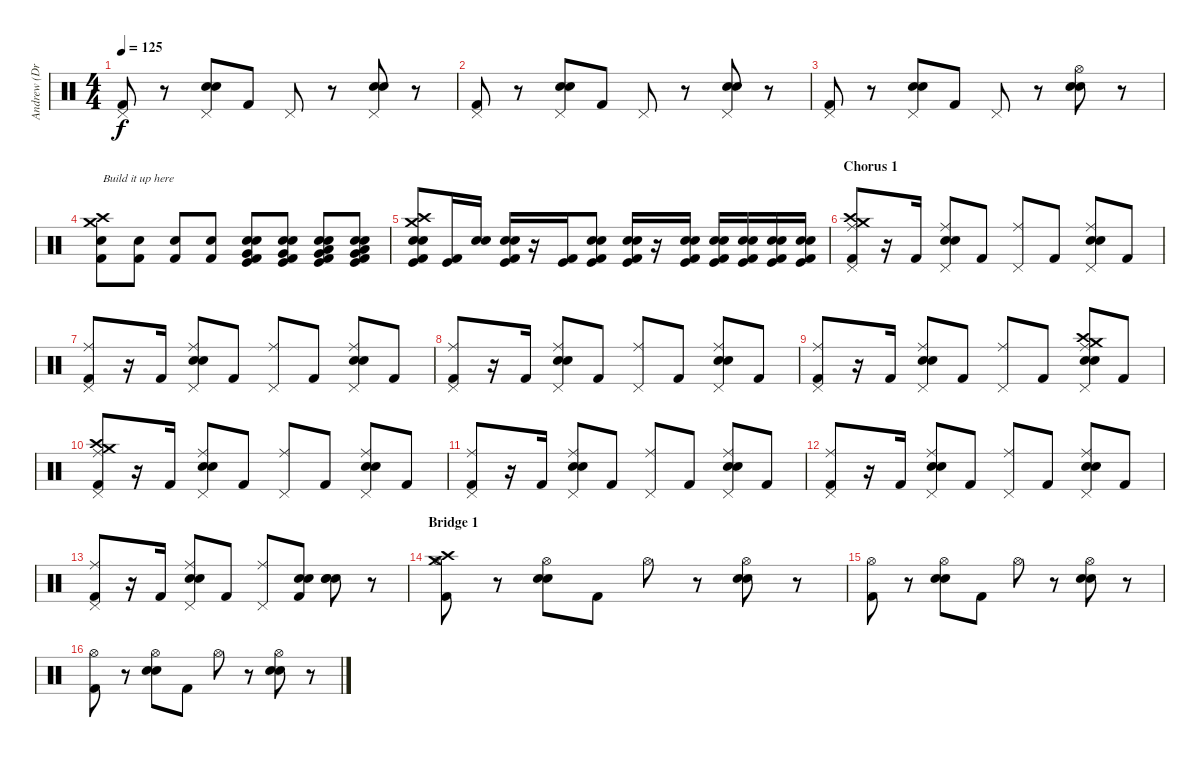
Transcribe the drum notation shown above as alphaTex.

\track ("Andrew (Drums)" "Andrew (Dr") {instrument percussion}
\staff {score}
\articulation defaults
\ts (4 4)
\tempo 125
\clef neutral
\ks c
("Pedal Hi-Hat (hit)" "Kick (hit) 2").8{dy f} r.8 ("Pedal Hi-Hat (hit)" "Snare (hit) 2" "Electric Snare (hit)").8 "Kick (hit) 2".8 "Pedal Hi-Hat (hit)".8 r.8 ("Pedal Hi-Hat (hit)" "Snare (hit) 2" "Electric Snare (hit)").8 r.8 |
("Pedal Hi-Hat (hit)" "Kick (hit) 2").8 r.8 ("Pedal Hi-Hat (hit)" "Snare (hit) 2" "Electric Snare (hit)").8 "Kick (hit) 2".8 "Pedal Hi-Hat (hit)".8 r.8 ("Pedal Hi-Hat (hit)" "Snare (hit) 2" "Electric Snare (hit)").8 r.8 |
("Pedal Hi-Hat (hit)" "Kick (hit) 2").8 r.8 ("Pedal Hi-Hat (hit)" "Snare (hit) 2" "Electric Snare (hit)").8 "Kick (hit) 2".8 "Pedal Hi-Hat (hit)".8 r.8 ("Hi-Hat (open)" "Snare (hit) 2" "Electric Snare (hit)").8 r.8 |
("Crash high (hit)" "Crash medium (hit)" "Snare (hit) 2" "Kick (hit) 2").8{txt "Build it up here"} ("Snare (hit) 2" "Kick (hit) 2").8 ("Snare (hit) 2" "Kick (hit) 2").8 ("Snare (hit) 2" "Kick (hit) 2").8 ("Very Low Tom (hit)" "Electric Snare (hit)" "Snare (hit) 2" "Kick (hit)" "Kick (hit) 2").8 ("Very Low Tom (hit)" "Electric Snare (hit)" "Snare (hit) 2" "Kick (hit)" "Kick (hit) 2").8 ("Low Floor Tom (hit)" "Very Low Tom (hit)" "Electric Snare (hit)" "Snare (hit) 2" "Kick (hit)" "Kick (hit) 2").8 ("Low Floor Tom (hit)" "Very Low Tom (hit)" "Electric Snare (hit)" "Snare (hit) 2" "Kick (hit)" "Kick (hit) 2").8 |
("Crash high (hit)" "Crash medium (hit)" "Snare (hit) 2" "Electric Snare (hit)" "Kick (hit)" "Kick (hit) 2").8 ("Kick (hit)" "Kick (hit) 2").16 ("Snare (hit) 2" "Electric Snare (hit)").16 ("Snare (hit) 2" "Electric Snare (hit)" "Kick (hit)" "Kick (hit) 2").16 r.16 ("Kick (hit)" "Kick (hit) 2").16 ("Snare (hit) 2" "Electric Snare (hit)" "Kick (hit)" "Kick (hit) 2").8 ("Snare (hit) 2" "Electric Snare (hit)" "Kick (hit)" "Kick (hit) 2").16 r.16 ("Snare (hit) 2" "Electric Snare (hit)" "Kick (hit)" "Kick (hit) 2").16 ("Snare (hit) 2" "Electric Snare (hit)" "Kick (hit)" "Kick (hit) 2").16 ("Snare (hit) 2" "Electric Snare (hit)" "Kick (hit)" "Kick (hit) 2").16 ("Snare (hit) 2" "Electric Snare (hit)" "Kick (hit)" "Kick (hit) 2").16 ("Snare (hit) 2" "Electric Snare (hit)" "Kick (hit)" "Kick (hit) 2").16 |
\section ("" "Chorus 1")
("Crash medium (hit)" "Crash high (hit)" "Pedal Hi-Hat (hit)" "Ride (middle)" "Kick (hit) 2").8 r.16 "Kick (hit) 2".16 ("Pedal Hi-Hat (hit)" "Ride (middle)" "Snare (hit) 2" "Electric Snare (hit)").8 "Kick (hit) 2".8 ("Pedal Hi-Hat (hit)" "Ride (middle)").8 "Kick (hit) 2".8 ("Pedal Hi-Hat (hit)" "Ride (middle)" "Snare (hit) 2" "Electric Snare (hit)").8 "Kick (hit) 2".8 |
("Pedal Hi-Hat (hit)" "Ride (middle)" "Kick (hit) 2").8 r.16 "Kick (hit) 2".16 ("Pedal Hi-Hat (hit)" "Ride (middle)" "Snare (hit) 2" "Electric Snare (hit)").8 "Kick (hit) 2".8 ("Pedal Hi-Hat (hit)" "Ride (middle)").8 "Kick (hit) 2".8 ("Pedal Hi-Hat (hit)" "Ride (middle)" "Snare (hit) 2" "Electric Snare (hit)").8 "Kick (hit) 2".8 |
("Pedal Hi-Hat (hit)" "Ride (middle)" "Kick (hit) 2").8 r.16 "Kick (hit) 2".16 ("Pedal Hi-Hat (hit)" "Ride (middle)" "Snare (hit) 2" "Electric Snare (hit)").8 "Kick (hit) 2".8 ("Pedal Hi-Hat (hit)" "Ride (middle)").8 "Kick (hit) 2".8 ("Pedal Hi-Hat (hit)" "Ride (middle)" "Snare (hit) 2" "Electric Snare (hit)").8 "Kick (hit) 2".8 |
("Pedal Hi-Hat (hit)" "Ride (middle)" "Kick (hit) 2").8 r.16 "Kick (hit) 2".16 ("Pedal Hi-Hat (hit)" "Ride (middle)" "Snare (hit) 2" "Electric Snare (hit)").8 "Kick (hit) 2".8 ("Pedal Hi-Hat (hit)" "Ride (middle)").8 "Kick (hit) 2".8 ("Crash medium (hit)" "Crash high (hit)" "Pedal Hi-Hat (hit)" "Ride (middle)" "Snare (hit) 2" "Electric Snare (hit)").8 "Kick (hit) 2".8 |
("Crash high (hit)" "Crash medium (hit)" "Pedal Hi-Hat (hit)" "Ride (middle)" "Kick (hit) 2").8 r.16 "Kick (hit) 2".16 ("Pedal Hi-Hat (hit)" "Ride (middle)" "Snare (hit) 2" "Electric Snare (hit)").8 "Kick (hit) 2".8 ("Pedal Hi-Hat (hit)" "Ride (middle)").8 "Kick (hit) 2".8 ("Pedal Hi-Hat (hit)" "Ride (middle)" "Snare (hit) 2" "Electric Snare (hit)").8 "Kick (hit) 2".8 |
("Pedal Hi-Hat (hit)" "Ride (middle)" "Kick (hit) 2").8 r.16 "Kick (hit) 2".16 ("Pedal Hi-Hat (hit)" "Ride (middle)" "Snare (hit) 2" "Electric Snare (hit)").8 "Kick (hit) 2".8 ("Pedal Hi-Hat (hit)" "Ride (middle)").8 "Kick (hit) 2".8 ("Pedal Hi-Hat (hit)" "Ride (middle)" "Snare (hit) 2" "Electric Snare (hit)").8 "Kick (hit) 2".8 |
("Pedal Hi-Hat (hit)" "Ride (middle)" "Kick (hit) 2").8 r.16 "Kick (hit) 2".16 ("Pedal Hi-Hat (hit)" "Ride (middle)" "Snare (hit) 2" "Electric Snare (hit)").8 "Kick (hit) 2".8 ("Pedal Hi-Hat (hit)" "Ride (middle)").8 "Kick (hit) 2".8 ("Pedal Hi-Hat (hit)" "Ride (middle)" "Snare (hit) 2" "Electric Snare (hit)").8 "Kick (hit) 2".8 |
("Pedal Hi-Hat (hit)" "Ride (middle)" "Kick (hit) 2").8 r.16 "Kick (hit) 2".16 ("Pedal Hi-Hat (hit)" "Ride (middle)" "Snare (hit) 2" "Electric Snare (hit)").8 "Kick (hit) 2".8 ("Pedal Hi-Hat (hit)" "Ride (middle)").8 ("Electric Snare (hit)" "Snare (hit) 2" "Kick (hit) 2").8 ("Electric Snare (hit)" "Snare (hit) 2" "Electric Snare (hit)").8 r.8 |
\section ("" "Bridge 1")
("Crash high (hit)" "Crash medium (hit)" "Hi-Hat (open)" "Kick (hit) 2").8 r.8 ("Hi-Hat (open)" "Snare (hit) 2" "Electric Snare (hit)").8 "Kick (hit) 2".8 "Hi-Hat (open)".8 r.8 ("Hi-Hat (open)" "Snare (hit) 2" "Electric Snare (hit)").8 r.8 |
("Hi-Hat (open)" "Kick (hit) 2").8 r.8 ("Hi-Hat (open)" "Snare (hit) 2" "Electric Snare (hit)").8 "Kick (hit) 2".8 "Hi-Hat (open)".8 r.8 ("Hi-Hat (open)" "Snare (hit) 2" "Electric Snare (hit)").8 r.8 |
("Hi-Hat (open)" "Kick (hit) 2").8 r.8 ("Hi-Hat (open)" "Snare (hit) 2" "Electric Snare (hit)").8 "Kick (hit) 2".8 "Hi-Hat (open)".8 r.8 ("Hi-Hat (open)" "Snare (hit) 2" "Electric Snare (hit)").8 r.8
